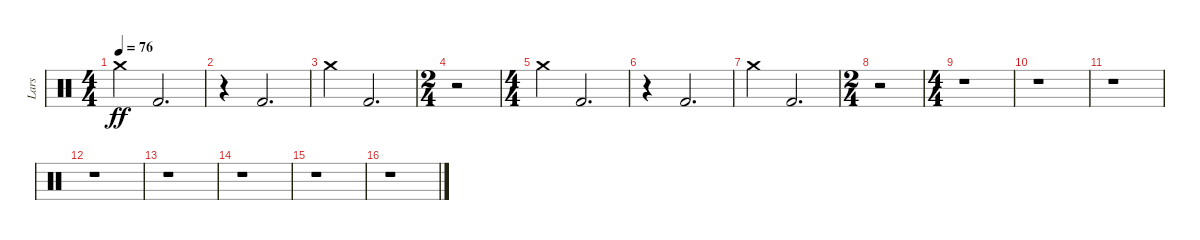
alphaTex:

\track ("Lars" "Lars") {instrument percussion}
\staff {score}
\articulation defaults
\ts (4 4)
\tempo 76
\clef neutral
\ks c "Crash medium (hit)".4{dy ff} "Kick (hit) 2".2{d}
|
r.4 "Kick (hit) 2".2{d} |
"Crash medium (hit)".4 "Kick (hit) 2".2{d} |
\ts (2 4)
r.2 |
\ts (4 4)
"Crash medium (hit)".4 "Kick (hit) 2".2{d} |
r.4 "Kick (hit) 2".2{d} |
"Crash medium (hit)".4 "Kick (hit) 2".2{d} |
\ts (2 4)
r.2 |
\ts (4 4)
r.1 |
r.1 |
r.1 |
r.1 |
r.1 |
r.1 |
r.1 |
r.1
